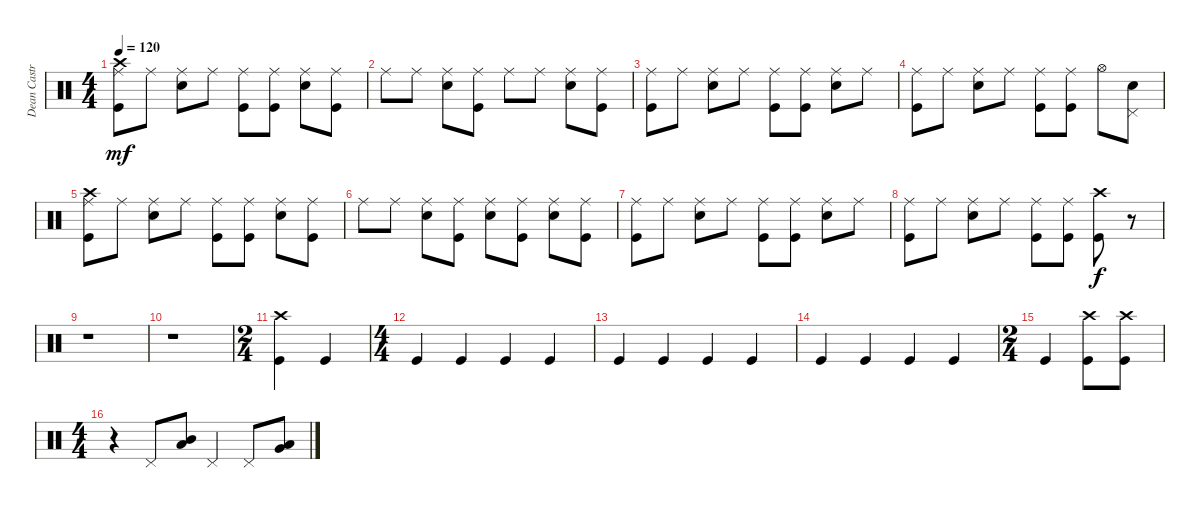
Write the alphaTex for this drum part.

\track ("Dean Castronova" "Dean Castr") {instrument percussion}
\staff {score}
\articulation defaults
\ts (4 4)
\tempo 120
\clef neutral
\ks c
("Crash high (hit)" "Ride (middle)" "Kick (hit)").8{dy mf} "Ride (middle)".8 ("Ride (middle)" "Electric Snare (hit)").8 "Ride (middle)".8 ("Ride (middle)" "Kick (hit)").8 ("Ride (middle)" "Kick (hit)").8 ("Ride (middle)" "Electric Snare (hit)").8 ("Ride (middle)" "Kick (hit)").8 |
"Ride (middle)".8 "Ride (middle)".8 ("Ride (middle)" "Electric Snare (hit)").8 ("Ride (middle)" "Kick (hit)").8 "Ride (middle)".8 "Ride (middle)".8 ("Ride (middle)" "Electric Snare (hit)").8 ("Ride (middle)" "Kick (hit)").8 |
("Ride (middle)" "Kick (hit)").8 "Ride (middle)".8 ("Ride (middle)" "Electric Snare (hit)").8 "Ride (middle)".8 ("Ride (middle)" "Kick (hit)").8 ("Ride (middle)" "Kick (hit)").8 ("Ride (middle)" "Electric Snare (hit)").8 "Ride (middle)".8 |
("Ride (middle)" "Kick (hit)").8 "Ride (middle)".8 ("Ride (middle)" "Electric Snare (hit)").8 "Ride (middle)".8 ("Ride (middle)" "Kick (hit)").8 ("Ride (middle)" "Kick (hit)").8 "Hi-Hat (open)".8 ("Pedal Hi-Hat (hit)" "Electric Snare (hit)").8 |
("Crash high (hit)" "Ride (middle)" "Kick (hit)").8 "Ride (middle)".8 ("Ride (middle)" "Electric Snare (hit)").8 "Ride (middle)".8 ("Ride (middle)" "Kick (hit)").8 ("Ride (middle)" "Kick (hit)").8 ("Ride (middle)" "Electric Snare (hit)").8 ("Ride (middle)" "Kick (hit)").8 |
"Ride (middle)".8 "Ride (middle)".8 ("Ride (middle)" "Electric Snare (hit)").8 ("Ride (middle)" "Kick (hit)").8 ("Ride (middle)" "Electric Snare (hit)").8 ("Ride (middle)" "Kick (hit)").8 ("Ride (middle)" "Electric Snare (hit)").8 ("Ride (middle)" "Kick (hit)").8 |
("Ride (middle)" "Kick (hit)").8 "Ride (middle)".8 ("Ride (middle)" "Electric Snare (hit)").8 "Ride (middle)".8 ("Ride (middle)" "Kick (hit)").8 ("Ride (middle)" "Kick (hit)").8 ("Ride (middle)" "Electric Snare (hit)").8 "Ride (middle)".8 |
("Ride (middle)" "Kick (hit)").8 "Ride (middle)".8 ("Ride (middle)" "Electric Snare (hit)").8 "Ride (middle)".8 ("Ride (middle)" "Kick (hit)").8 ("Ride (middle)" "Kick (hit)").8 ("Crash high (hit)" "Kick (hit)").8{dy f} r.8 |
r.1 |
r.1 |
\ts (2 4)
("Crash high (hit)" "Kick (hit)").4 "Kick (hit)".4 |
\ts (4 4)
"Kick (hit)".4 "Kick (hit)".4 "Kick (hit)".4 "Kick (hit)".4 |
"Kick (hit)".4 "Kick (hit)".4 "Kick (hit)".4 "Kick (hit)".4 |
"Kick (hit)".4 "Kick (hit)".4 "Kick (hit)".4 "Kick (hit)".4 |
\ts (2 4)
"Kick (hit)".4 ("Crash high (hit)" "Kick (hit)").8 ("Crash high (hit)" "Kick (hit)").8 |
\ts (4 4)
r.4 "Pedal Hi-Hat (hit)".8 ("Mid Tom (hit)" "Low Tom (hit)").8 "Pedal Hi-Hat (hit)".4 "Pedal Hi-Hat (hit)".8 ("Low Tom (hit)" "Very Low Tom (hit)").8
